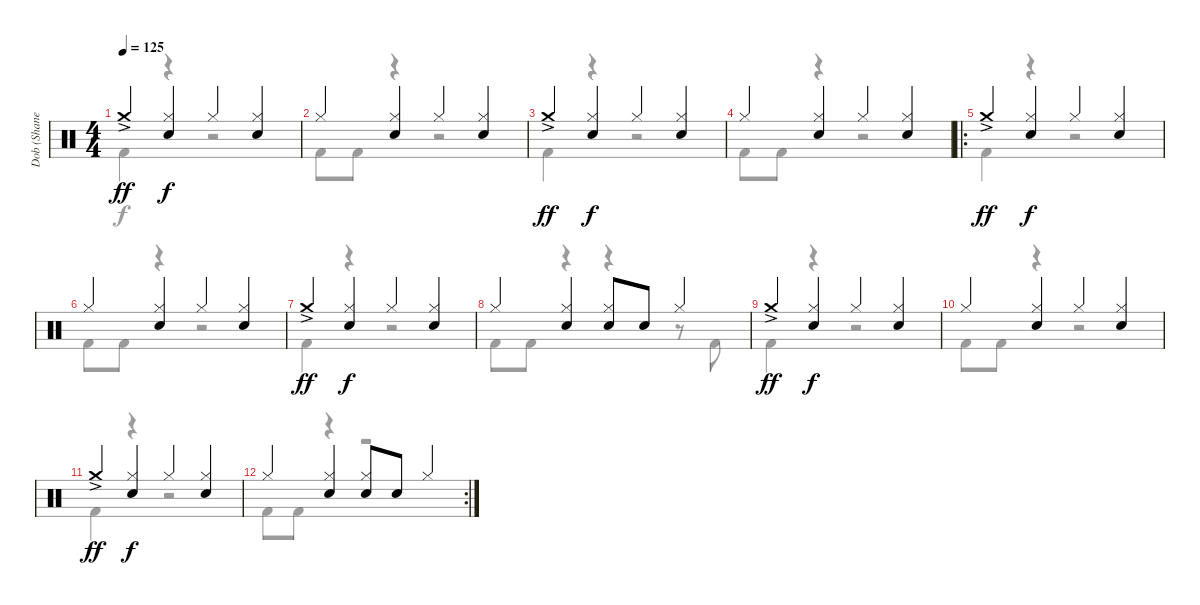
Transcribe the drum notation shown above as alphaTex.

\track ("Dob (Shane Gaalaas)" "Dob (Shane") {instrument percussion}
\staff {score}
\articulation defaults
\voice
\ts (4 4)
\tempo 125
\clef neutral
\ks c "Crash medium (hit)"{ac}.4{dy ff}
("Hi-Hat (closed)" "Electric Snare (hit)").4{dy f} "Hi-Hat (closed)".4 ("Hi-Hat (closed)" "Electric Snare (hit)").4 |
"Hi-Hat (closed)".4 ("Hi-Hat (closed)" "Electric Snare (hit)").4 "Hi-Hat (closed)".4 ("Hi-Hat (closed)" "Electric Snare (hit)").4 |
"Crash medium (hit)"{ac}.4{dy ff} ("Hi-Hat (closed)" "Electric Snare (hit)").4{dy f} "Hi-Hat (closed)".4 ("Hi-Hat (closed)" "Electric Snare (hit)").4 |
"Hi-Hat (closed)".4 ("Hi-Hat (closed)" "Electric Snare (hit)").4 "Hi-Hat (closed)".4 ("Hi-Hat (closed)" "Electric Snare (hit)").4 |
\ro "Crash medium (hit)"{ac}.4{dy ff}
("Hi-Hat (closed)" "Electric Snare (hit)").4{dy f} "Hi-Hat (closed)".4 ("Hi-Hat (closed)" "Electric Snare (hit)").4 |
"Hi-Hat (closed)".4 ("Hi-Hat (closed)" "Electric Snare (hit)").4 "Hi-Hat (closed)".4 ("Hi-Hat (closed)" "Electric Snare (hit)").4 |
"Crash medium (hit)"{ac}.4{dy ff} ("Hi-Hat (closed)" "Electric Snare (hit)").4{dy f} "Hi-Hat (closed)".4 ("Hi-Hat (closed)" "Electric Snare (hit)").4 |
"Hi-Hat (closed)".4 ("Hi-Hat (closed)" "Electric Snare (hit)").4 ("Hi-Hat (closed)" "Electric Snare (hit)").8 "Electric Snare (hit)".8 "Hi-Hat (closed)".4 |
"Crash medium (hit)"{ac}.4{dy ff} ("Hi-Hat (closed)" "Electric Snare (hit)").4{dy f} "Hi-Hat (closed)".4 ("Hi-Hat (closed)" "Electric Snare (hit)").4 |
"Hi-Hat (closed)".4 ("Hi-Hat (closed)" "Electric Snare (hit)").4 "Hi-Hat (closed)".4 ("Hi-Hat (closed)" "Electric Snare (hit)").4 |
"Crash medium (hit)"{ac}.4{dy ff} ("Hi-Hat (closed)" "Electric Snare (hit)").4{dy f} "Hi-Hat (closed)".4 ("Hi-Hat (closed)" "Electric Snare (hit)").4 |
\rc 2 "Hi-Hat (closed)".4
("Hi-Hat (closed)" "Electric Snare (hit)").4 ("Hi-Hat (closed)" "Electric Snare (hit)").8 "Electric Snare (hit)".8 "Hi-Hat (closed)".4 |
\voice
\clef neutral
\ottava regular
\simile none
\ks c "Kick (hit) 2".4{dy f}
r.4 r.2 |
"Kick (hit) 2".8 "Kick (hit) 2".8 r.4 r.2 |
"Kick (hit) 2".4 r.4 r.2 |
"Kick (hit) 2".8 "Kick (hit) 2".8 r.4 r.2 |
"Kick (hit) 2".4 r.4 r.2 |
"Kick (hit) 2".8 "Kick (hit) 2".8 r.4 r.2 |
"Kick (hit) 2".4 r.4 r.2 |
"Kick (hit) 2".8 "Kick (hit) 2".8 r.4 r.4 r.8 "Kick (hit) 2".8 |
"Kick (hit) 2".4 r.4 r.2 |
"Kick (hit) 2".8 "Kick (hit) 2".8 r.4 r.2 |
"Kick (hit) 2".4 r.4 r.2 |
"Kick (hit) 2".8 "Kick (hit) 2".8 r.4 r.2 |
